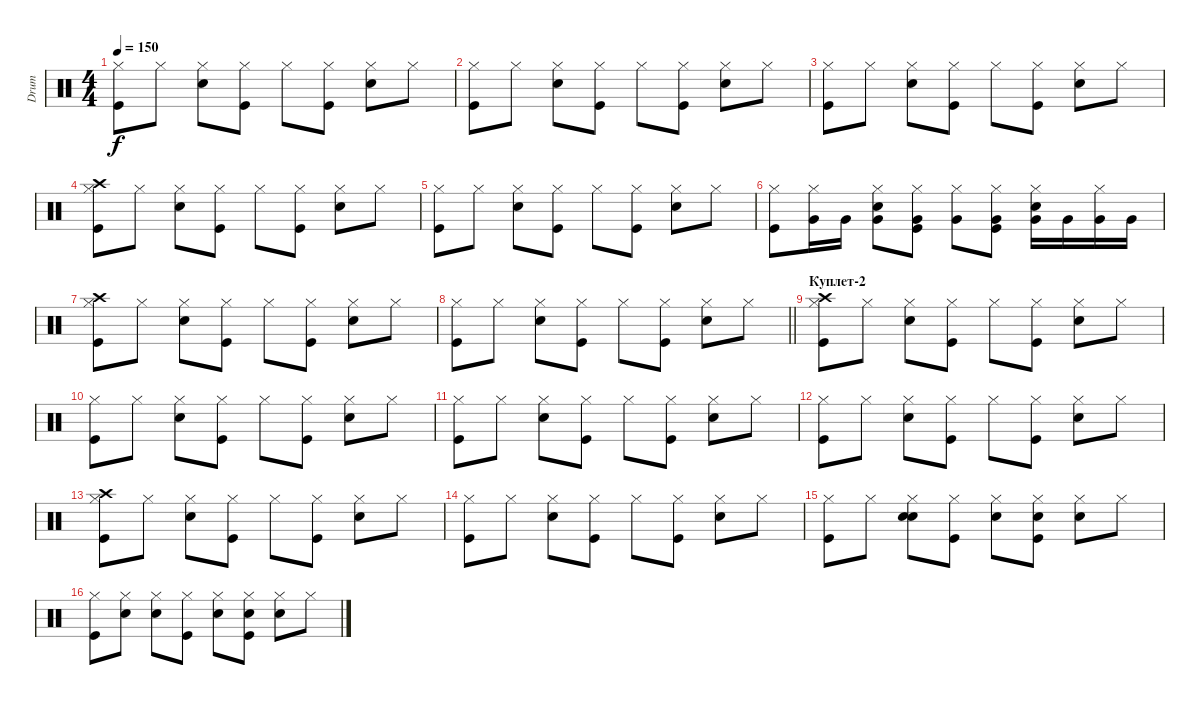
\track ("Drum" "Drum") {instrument percussion}
\staff {score}
\articulation defaults
\ts (4 4)
\tempo 150
\clef neutral
\ks c
("Kick (hit)" "Hi-Hat (closed)").8{dy f} "Hi-Hat (closed)".8 ("Snare (hit) 2" "Hi-Hat (closed)").8 ("Kick (hit)" "Hi-Hat (closed)").8 "Hi-Hat (closed)".8 ("Kick (hit)" "Hi-Hat (closed)").8 ("Snare (hit) 2" "Hi-Hat (closed)").8 "Hi-Hat (closed)".8 |
("Kick (hit)" "Hi-Hat (closed)").8 "Hi-Hat (closed)".8 ("Snare (hit) 2" "Hi-Hat (closed)").8 ("Kick (hit)" "Hi-Hat (closed)").8 "Hi-Hat (closed)".8 ("Kick (hit)" "Hi-Hat (closed)").8 ("Snare (hit) 2" "Hi-Hat (closed)").8 "Hi-Hat (closed)".8 |
("Kick (hit)" "Hi-Hat (closed)").8 "Hi-Hat (closed)".8 ("Snare (hit) 2" "Hi-Hat (closed)").8 ("Kick (hit)" "Hi-Hat (closed)").8 "Hi-Hat (closed)".8 ("Kick (hit)" "Hi-Hat (closed)").8 ("Snare (hit) 2" "Hi-Hat (closed)").8 "Hi-Hat (closed)".8 |
("Kick (hit)" "Hi-Hat (closed)" "Crash high (hit)").8 "Hi-Hat (closed)".8 ("Snare (hit) 2" "Hi-Hat (closed)").8 ("Kick (hit)" "Hi-Hat (closed)").8 "Hi-Hat (closed)".8 ("Kick (hit)" "Hi-Hat (closed)").8 ("Snare (hit) 2" "Hi-Hat (closed)").8 "Hi-Hat (closed)".8 |
("Kick (hit)" "Hi-Hat (closed)").8 "Hi-Hat (closed)".8 ("Snare (hit) 2" "Hi-Hat (closed)").8 ("Kick (hit)" "Hi-Hat (closed)").8 "Hi-Hat (closed)".8 ("Kick (hit)" "Hi-Hat (closed)").8 ("Snare (hit) 2" "Hi-Hat (closed)").8 "Hi-Hat (closed)".8 |
("Kick (hit)" "Hi-Hat (closed)").8 ("Hi-Hat (closed)" "Very Low Tom (hit)").16 "Very Low Tom (hit)".16 ("Snare (hit) 2" "Hi-Hat (closed)" "Very Low Tom (hit)").8 ("Kick (hit)" "Hi-Hat (closed)" "Very Low Tom (hit)").8 ("Hi-Hat (closed)" "Very Low Tom (hit)").8 ("Kick (hit)" "Hi-Hat (closed)" "Very Low Tom (hit)").8 ("Snare (hit) 2" "Hi-Hat (closed)" "Very Low Tom (hit)").16 "Very Low Tom (hit)".16 ("Hi-Hat (closed)" "Very Low Tom (hit)").16 "Very Low Tom (hit)".16 |
("Kick (hit)" "Hi-Hat (closed)" "Crash high (hit)").8 "Hi-Hat (closed)".8 ("Snare (hit) 2" "Hi-Hat (closed)").8 ("Kick (hit)" "Hi-Hat (closed)").8 "Hi-Hat (closed)".8 ("Kick (hit)" "Hi-Hat (closed)").8 ("Snare (hit) 2" "Hi-Hat (closed)").8 "Hi-Hat (closed)".8 |
\barLineRight lightlight
("Kick (hit)" "Hi-Hat (closed)").8 "Hi-Hat (closed)".8 ("Snare (hit) 2" "Hi-Hat (closed)").8 ("Kick (hit)" "Hi-Hat (closed)").8 "Hi-Hat (closed)".8 ("Kick (hit)" "Hi-Hat (closed)").8 ("Snare (hit) 2" "Hi-Hat (closed)").8 "Hi-Hat (closed)".8 |
\section ("" "Куплет-2")
("Kick (hit)" "Hi-Hat (closed)" "Crash high (hit)").8 "Hi-Hat (closed)".8 ("Snare (hit) 2" "Hi-Hat (closed)").8 ("Kick (hit)" "Hi-Hat (closed)").8 "Hi-Hat (closed)".8 ("Kick (hit)" "Hi-Hat (closed)").8 ("Snare (hit) 2" "Hi-Hat (closed)").8 "Hi-Hat (closed)".8 |
("Kick (hit)" "Hi-Hat (closed)").8 "Hi-Hat (closed)".8 ("Snare (hit) 2" "Hi-Hat (closed)").8 ("Kick (hit)" "Hi-Hat (closed)").8 "Hi-Hat (closed)".8 ("Kick (hit)" "Hi-Hat (closed)").8 ("Snare (hit) 2" "Hi-Hat (closed)").8 "Hi-Hat (closed)".8 |
("Kick (hit)" "Hi-Hat (closed)").8 "Hi-Hat (closed)".8 ("Snare (hit) 2" "Hi-Hat (closed)").8 ("Kick (hit)" "Hi-Hat (closed)").8 "Hi-Hat (closed)".8 ("Kick (hit)" "Hi-Hat (closed)").8 ("Snare (hit) 2" "Hi-Hat (closed)").8 "Hi-Hat (closed)".8 |
("Kick (hit)" "Hi-Hat (closed)").8 "Hi-Hat (closed)".8 ("Snare (hit) 2" "Hi-Hat (closed)").8 ("Kick (hit)" "Hi-Hat (closed)").8 "Hi-Hat (closed)".8 ("Kick (hit)" "Hi-Hat (closed)").8 ("Snare (hit) 2" "Hi-Hat (closed)").8 "Hi-Hat (closed)".8 |
("Kick (hit)" "Hi-Hat (closed)" "Crash high (hit)").8 "Hi-Hat (closed)".8 ("Snare (hit) 2" "Hi-Hat (closed)").8 ("Kick (hit)" "Hi-Hat (closed)").8 "Hi-Hat (closed)".8 ("Kick (hit)" "Hi-Hat (closed)").8 ("Snare (hit) 2" "Hi-Hat (closed)").8 "Hi-Hat (closed)".8 |
("Kick (hit)" "Hi-Hat (closed)").8 "Hi-Hat (closed)".8 ("Snare (hit) 2" "Hi-Hat (closed)").8 ("Kick (hit)" "Hi-Hat (closed)").8 "Hi-Hat (closed)".8 ("Kick (hit)" "Hi-Hat (closed)").8 ("Snare (hit) 2" "Hi-Hat (closed)").8 "Hi-Hat (closed)".8 |
("Kick (hit)" "Hi-Hat (closed)").8 "Hi-Hat (closed)".8 ("Snare (hit) 2" "Hi-Hat (closed)" "Hand Clap (hit)").8 ("Kick (hit)" "Hi-Hat (closed)").8 ("Hi-Hat (closed)" "Hand Clap (hit)").8 ("Kick (hit)" "Hi-Hat (closed)" "Hand Clap (hit)").8 ("Snare (hit) 2" "Hi-Hat (closed)").8 "Hi-Hat (closed)".8 |
("Kick (hit)" "Hi-Hat (closed)").8 ("Hi-Hat (closed)" "Hand Clap (hit)").8 ("Snare (hit) 2" "Hi-Hat (closed)").8 ("Kick (hit)" "Hi-Hat (closed)").8 ("Hi-Hat (closed)" "Hand Clap (hit)").8 ("Kick (hit)" "Hi-Hat (closed)" "Hand Clap (hit)").8 ("Snare (hit) 2" "Hi-Hat (closed)").8 "Hi-Hat (closed)".8
